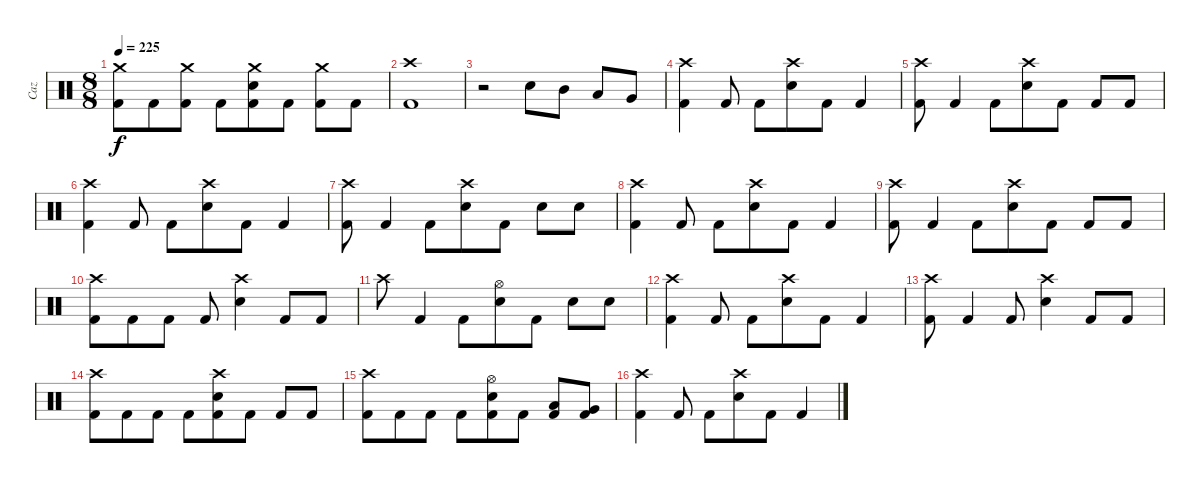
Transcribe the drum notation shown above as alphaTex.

\track ("Caz" "Caz") {instrument percussion}
\staff {score}
\articulation defaults
\ts (8 8)
\tempo 225
\clef neutral
\ks c
("Crash medium (hit)" "Kick (hit) 2").8{dy f} "Kick (hit) 2".8 ("Crash medium (hit)" "Kick (hit) 2").8 "Kick (hit) 2".8 ("Crash medium (hit)" "Electric Snare (hit)" "Kick (hit) 2").8 "Kick (hit) 2".8 ("Crash medium (hit)" "Kick (hit) 2").8 "Kick (hit) 2".8 |
("Crash high (hit)" "Kick (hit) 2").1 |
r.2 "Electric Snare (hit)".8{beam merge} "Mid Tom (hit)".8 "Low Tom (hit)".8 "Very Low Tom (hit)".8 |
("Crash high (hit)" "Kick (hit) 2").4 "Kick (hit) 2".8 "Kick (hit) 2".8 ("Crash high (hit)" "Electric Snare (hit)").8 "Kick (hit) 2".8 "Kick (hit) 2".4 |
("Crash high (hit)" "Kick (hit) 2").8 "Kick (hit) 2".4 "Kick (hit) 2".8 ("Crash high (hit)" "Electric Snare (hit)").8 "Kick (hit) 2".8 "Kick (hit) 2".8 "Kick (hit) 2".8 |
("Crash high (hit)" "Kick (hit) 2").4 "Kick (hit) 2".8 "Kick (hit) 2".8 ("Crash high (hit)" "Electric Snare (hit)").8 "Kick (hit) 2".8 "Kick (hit) 2".4 |
("Crash high (hit)" "Kick (hit) 2").8 "Kick (hit) 2".4 "Kick (hit) 2".8 ("Crash high (hit)" "Electric Snare (hit)").8 "Kick (hit) 2".8 "Electric Snare (hit)".8 "Electric Snare (hit)".8 |
("Crash high (hit)" "Kick (hit) 2").4 "Kick (hit) 2".8 "Kick (hit) 2".8 ("Crash high (hit)" "Electric Snare (hit)").8 "Kick (hit) 2".8 "Kick (hit) 2".4 |
("Crash high (hit)" "Kick (hit) 2").8 "Kick (hit) 2".4 "Kick (hit) 2".8 ("Crash high (hit)" "Electric Snare (hit)").8 "Kick (hit) 2".8 "Kick (hit) 2".8 "Kick (hit) 2".8 |
("Crash high (hit)" "Kick (hit) 2").8 "Kick (hit) 2".8 "Kick (hit) 2".8 "Kick (hit) 2".8 ("Crash high (hit)" "Electric Snare (hit)").4 "Kick (hit) 2".8 "Kick (hit) 2".8 |
"Crash high (hit)".8 "Kick (hit) 2".4 "Kick (hit) 2".8 ("Hi-Hat (open)" "Electric Snare (hit)").8 "Kick (hit) 2".8 "Electric Snare (hit)".8 "Electric Snare (hit)".8 |
("Crash high (hit)" "Kick (hit) 2").4 "Kick (hit) 2".8 "Kick (hit) 2".8 ("Crash high (hit)" "Electric Snare (hit)").8 "Kick (hit) 2".8 "Kick (hit) 2".4 |
("Crash high (hit)" "Kick (hit) 2").8 "Kick (hit) 2".4 "Kick (hit) 2".8 ("Crash high (hit)" "Electric Snare (hit)").4 "Kick (hit) 2".8 "Kick (hit) 2".8 |
("Crash high (hit)" "Kick (hit) 2").8 "Kick (hit) 2".8 "Kick (hit) 2".8 "Kick (hit) 2".8 ("Crash high (hit)" "Electric Snare (hit)" "Kick (hit) 2").8 "Kick (hit) 2".8 "Kick (hit) 2".8 "Kick (hit) 2".8 |
("Crash high (hit)" "Kick (hit) 2").8 "Kick (hit) 2".8 "Kick (hit) 2".8 "Kick (hit) 2".8 ("Hi-Hat (open)" "Electric Snare (hit)" "Kick (hit) 2").8 "Kick (hit) 2".8 ("Low Tom (hit)" "Kick (hit) 2").8 ("Very Low Tom (hit)" "Kick (hit) 2").8 |
("Crash high (hit)" "Kick (hit) 2").4 "Kick (hit) 2".8 "Kick (hit) 2".8 ("Crash high (hit)" "Electric Snare (hit)").8 "Kick (hit) 2".8 "Kick (hit) 2".4
